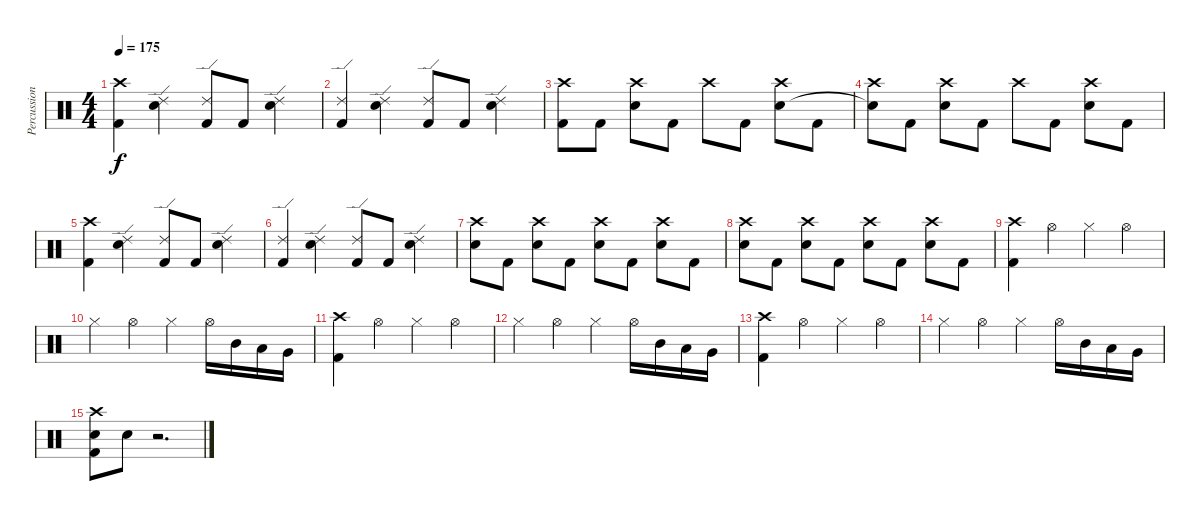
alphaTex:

\track ("Percussion" "Percussion") {instrument percussion}
\staff {score}
\articulation defaults
\ts (4 4)
\tempo 175
\clef neutral
\ks c
("Crash high (hit)" "Kick (hit) 2").4{dy f} ("Ride (edge) 2" "Snare (hit) 2").4 ("Ride (edge) 2" "Kick (hit) 2").8 "Kick (hit) 2".8 ("Ride (edge) 2" "Snare (hit) 2").4 |
("Ride (edge) 2" "Kick (hit) 2").4 ("Ride (edge) 2" "Snare (hit) 2").4 ("Ride (edge) 2" "Kick (hit) 2").8 "Kick (hit) 2".8 ("Ride (edge) 2" "Snare (hit) 2").4 |
("Crash high (hit)" "Kick (hit) 2").8 "Kick (hit) 2".8 ("Crash high (hit)" "Snare (hit) 2").8 "Kick (hit) 2".8 "Crash high (hit)".8 "Kick (hit) 2".8 ("Crash high (hit)" "Snare (hit) 2").8 "Kick (hit) 2".8 |
("Crash high (hit)" "Snare (hit)"{t}).8 "Kick (hit) 2".8 ("Crash high (hit)" "Snare (hit) 2").8 "Kick (hit) 2".8 "Crash high (hit)".8 "Kick (hit) 2".8 ("Crash high (hit)" "Snare (hit) 2").8 "Kick (hit) 2".8 |
("Crash high (hit)" "Kick (hit) 2").4 ("Ride (edge) 2" "Snare (hit) 2").4 ("Ride (edge) 2" "Kick (hit) 2").8 "Kick (hit) 2".8 ("Ride (edge) 2" "Snare (hit) 2").4 |
("Ride (edge) 2" "Kick (hit) 2").4 ("Ride (edge) 2" "Snare (hit) 2").4 ("Ride (edge) 2" "Kick (hit) 2").8 "Kick (hit) 2".8 ("Ride (edge) 2" "Snare (hit) 2").4 |
("Crash high (hit)" "Snare (hit) 2").8 "Kick (hit) 2".8 ("Crash high (hit)" "Snare (hit) 2").8 "Kick (hit) 2".8 ("Crash high (hit)" "Snare (hit) 2").8 "Kick (hit) 2".8 ("Crash high (hit)" "Snare (hit) 2").8 "Kick (hit) 2".8 |
("Crash high (hit)" "Snare (hit) 2").8 "Kick (hit) 2".8 ("Crash high (hit)" "Snare (hit) 2").8 "Kick (hit) 2".8 ("Crash high (hit)" "Snare (hit) 2").8 "Kick (hit) 2".8 ("Crash high (hit)" "Snare (hit) 2").8 "Kick (hit) 2".8 |
("Crash high (hit)" "Kick (hit) 2").4 "Hi-Hat (open)".4 "Hi-Hat (closed)".4 "Hi-Hat (open)".4 |
"Hi-Hat (closed)".4 "Hi-Hat (open)".4 "Hi-Hat (closed)".4 "Hi-Hat (open)".16 "Mid Tom (hit)".16 "Low Tom (hit)".16 "Very Low Tom (hit)".16 |
("Crash high (hit)" "Kick (hit) 2").4 "Hi-Hat (open)".4 "Hi-Hat (closed)".4 "Hi-Hat (open)".4 |
"Hi-Hat (closed)".4 "Hi-Hat (open)".4 "Hi-Hat (closed)".4 "Hi-Hat (open)".16 "Mid Tom (hit)".16 "Low Tom (hit)".16 "Very Low Tom (hit)".16 |
("Crash high (hit)" "Kick (hit) 2").4 "Hi-Hat (open)".4 "Hi-Hat (closed)".4 "Hi-Hat (open)".4 |
"Hi-Hat (closed)".4 "Hi-Hat (open)".4 "Hi-Hat (closed)".4 "Hi-Hat (open)".16 "Mid Tom (hit)".16 "Low Tom (hit)".16 "Very Low Tom (hit)".16 |
("Crash high (hit)" "Snare (hit) 2" "Kick (hit) 2").8 "Snare (hit)"{x}.8 r.2{d}
